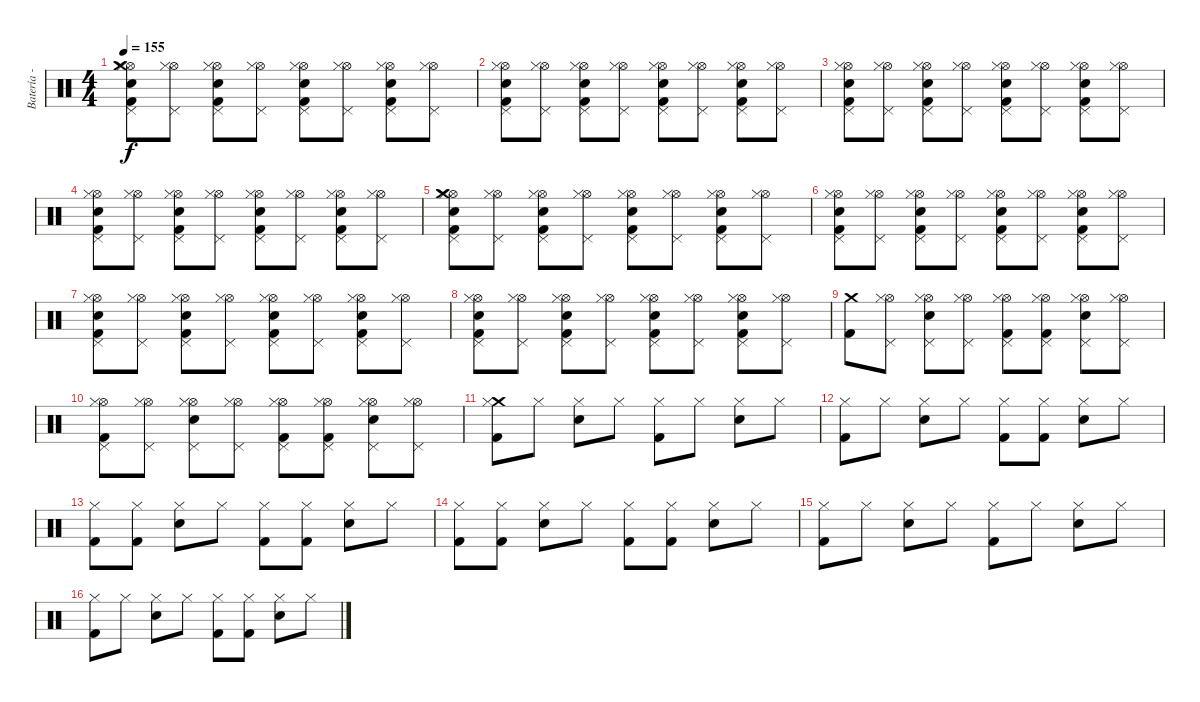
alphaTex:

\track ("Batería - Edu" "Batería - ") {instrument percussion}
\staff {score}
\articulation defaults
\ts (4 4)
\tempo 155
\clef neutral
\ks c
("Hi-Hat (open)" "Pedal Hi-Hat (hit)" "Hi-Hat (closed)" "Kick (hit) 2" "Electric Snare (hit)" "Crash medium (hit)").8{dy f} ("Hi-Hat (open)" "Pedal Hi-Hat (hit)" "Hi-Hat (closed)").8 ("Hi-Hat (open)" "Pedal Hi-Hat (hit)" "Hi-Hat (closed)" "Kick (hit) 2" "Electric Snare (hit)").8 ("Hi-Hat (open)" "Pedal Hi-Hat (hit)" "Hi-Hat (closed)").8 ("Hi-Hat (open)" "Pedal Hi-Hat (hit)" "Hi-Hat (closed)" "Kick (hit) 2" "Electric Snare (hit)").8 ("Hi-Hat (open)" "Pedal Hi-Hat (hit)" "Hi-Hat (closed)").8 ("Hi-Hat (open)" "Pedal Hi-Hat (hit)" "Hi-Hat (closed)" "Kick (hit) 2" "Electric Snare (hit)").8 ("Hi-Hat (open)" "Pedal Hi-Hat (hit)" "Hi-Hat (closed)").8 |
("Hi-Hat (open)" "Pedal Hi-Hat (hit)" "Hi-Hat (closed)" "Kick (hit) 2" "Electric Snare (hit)").8 ("Hi-Hat (open)" "Pedal Hi-Hat (hit)" "Hi-Hat (closed)").8 ("Hi-Hat (open)" "Pedal Hi-Hat (hit)" "Hi-Hat (closed)" "Kick (hit) 2" "Electric Snare (hit)").8 ("Hi-Hat (open)" "Pedal Hi-Hat (hit)" "Hi-Hat (closed)").8 ("Hi-Hat (open)" "Pedal Hi-Hat (hit)" "Hi-Hat (closed)" "Kick (hit) 2" "Electric Snare (hit)").8 ("Hi-Hat (open)" "Pedal Hi-Hat (hit)" "Hi-Hat (closed)").8 ("Hi-Hat (open)" "Pedal Hi-Hat (hit)" "Hi-Hat (closed)" "Kick (hit) 2" "Electric Snare (hit)").8 ("Hi-Hat (open)" "Pedal Hi-Hat (hit)" "Hi-Hat (closed)").8 |
("Hi-Hat (open)" "Pedal Hi-Hat (hit)" "Hi-Hat (closed)" "Kick (hit) 2" "Electric Snare (hit)").8 ("Hi-Hat (open)" "Pedal Hi-Hat (hit)" "Hi-Hat (closed)").8 ("Hi-Hat (open)" "Pedal Hi-Hat (hit)" "Hi-Hat (closed)" "Kick (hit) 2" "Electric Snare (hit)").8 ("Hi-Hat (open)" "Pedal Hi-Hat (hit)" "Hi-Hat (closed)").8 ("Hi-Hat (open)" "Pedal Hi-Hat (hit)" "Hi-Hat (closed)" "Kick (hit) 2" "Electric Snare (hit)").8 ("Hi-Hat (open)" "Pedal Hi-Hat (hit)" "Hi-Hat (closed)").8 ("Hi-Hat (open)" "Pedal Hi-Hat (hit)" "Hi-Hat (closed)" "Kick (hit) 2" "Electric Snare (hit)").8 ("Hi-Hat (open)" "Pedal Hi-Hat (hit)" "Hi-Hat (closed)").8 |
("Hi-Hat (open)" "Pedal Hi-Hat (hit)" "Hi-Hat (closed)" "Kick (hit) 2" "Electric Snare (hit)").8 ("Hi-Hat (open)" "Pedal Hi-Hat (hit)" "Hi-Hat (closed)").8 ("Hi-Hat (open)" "Pedal Hi-Hat (hit)" "Hi-Hat (closed)" "Kick (hit) 2" "Electric Snare (hit)").8 ("Hi-Hat (open)" "Pedal Hi-Hat (hit)" "Hi-Hat (closed)").8 ("Hi-Hat (open)" "Pedal Hi-Hat (hit)" "Hi-Hat (closed)" "Kick (hit) 2" "Electric Snare (hit)").8 ("Hi-Hat (open)" "Pedal Hi-Hat (hit)" "Hi-Hat (closed)").8 ("Hi-Hat (open)" "Pedal Hi-Hat (hit)" "Hi-Hat (closed)" "Kick (hit) 2" "Electric Snare (hit)").8 ("Hi-Hat (open)" "Pedal Hi-Hat (hit)" "Hi-Hat (closed)").8 |
("Hi-Hat (open)" "Pedal Hi-Hat (hit)" "Hi-Hat (closed)" "Kick (hit) 2" "Electric Snare (hit)" "Crash medium (hit)").8 ("Hi-Hat (open)" "Pedal Hi-Hat (hit)" "Hi-Hat (closed)").8 ("Hi-Hat (open)" "Pedal Hi-Hat (hit)" "Hi-Hat (closed)" "Kick (hit) 2" "Electric Snare (hit)").8 ("Hi-Hat (open)" "Pedal Hi-Hat (hit)" "Hi-Hat (closed)").8 ("Hi-Hat (open)" "Pedal Hi-Hat (hit)" "Hi-Hat (closed)" "Kick (hit) 2" "Electric Snare (hit)").8 ("Hi-Hat (open)" "Pedal Hi-Hat (hit)" "Hi-Hat (closed)").8 ("Hi-Hat (open)" "Pedal Hi-Hat (hit)" "Hi-Hat (closed)" "Kick (hit) 2" "Electric Snare (hit)").8 ("Hi-Hat (open)" "Pedal Hi-Hat (hit)" "Hi-Hat (closed)").8 |
("Hi-Hat (open)" "Pedal Hi-Hat (hit)" "Hi-Hat (closed)" "Kick (hit) 2" "Electric Snare (hit)").8 ("Hi-Hat (open)" "Pedal Hi-Hat (hit)" "Hi-Hat (closed)").8 ("Hi-Hat (open)" "Pedal Hi-Hat (hit)" "Hi-Hat (closed)" "Kick (hit) 2" "Electric Snare (hit)").8 ("Hi-Hat (open)" "Pedal Hi-Hat (hit)" "Hi-Hat (closed)").8 ("Hi-Hat (open)" "Pedal Hi-Hat (hit)" "Hi-Hat (closed)" "Kick (hit) 2" "Electric Snare (hit)").8 ("Hi-Hat (open)" "Pedal Hi-Hat (hit)" "Hi-Hat (closed)").8 ("Hi-Hat (open)" "Pedal Hi-Hat (hit)" "Hi-Hat (closed)" "Kick (hit) 2" "Electric Snare (hit)").8 ("Hi-Hat (open)" "Pedal Hi-Hat (hit)" "Hi-Hat (closed)").8 |
("Hi-Hat (open)" "Pedal Hi-Hat (hit)" "Hi-Hat (closed)" "Kick (hit) 2" "Electric Snare (hit)").8 ("Hi-Hat (open)" "Pedal Hi-Hat (hit)" "Hi-Hat (closed)").8 ("Hi-Hat (open)" "Pedal Hi-Hat (hit)" "Hi-Hat (closed)" "Kick (hit) 2" "Electric Snare (hit)").8 ("Hi-Hat (open)" "Pedal Hi-Hat (hit)" "Hi-Hat (closed)").8 ("Hi-Hat (open)" "Pedal Hi-Hat (hit)" "Hi-Hat (closed)" "Kick (hit) 2" "Electric Snare (hit)").8 ("Hi-Hat (open)" "Pedal Hi-Hat (hit)" "Hi-Hat (closed)").8 ("Hi-Hat (open)" "Pedal Hi-Hat (hit)" "Hi-Hat (closed)" "Kick (hit) 2" "Electric Snare (hit)").8 ("Hi-Hat (open)" "Pedal Hi-Hat (hit)" "Hi-Hat (closed)").8 |
("Hi-Hat (open)" "Pedal Hi-Hat (hit)" "Hi-Hat (closed)" "Kick (hit) 2" "Electric Snare (hit)").8 ("Hi-Hat (open)" "Pedal Hi-Hat (hit)" "Hi-Hat (closed)").8 ("Hi-Hat (open)" "Pedal Hi-Hat (hit)" "Hi-Hat (closed)" "Kick (hit) 2" "Electric Snare (hit)").8 ("Hi-Hat (open)" "Pedal Hi-Hat (hit)" "Hi-Hat (closed)").8 ("Hi-Hat (open)" "Pedal Hi-Hat (hit)" "Hi-Hat (closed)" "Kick (hit) 2" "Electric Snare (hit)").8 ("Hi-Hat (open)" "Pedal Hi-Hat (hit)" "Hi-Hat (closed)").8 ("Hi-Hat (open)" "Pedal Hi-Hat (hit)" "Hi-Hat (closed)" "Kick (hit) 2" "Electric Snare (hit)").8 ("Hi-Hat (open)" "Pedal Hi-Hat (hit)" "Hi-Hat (closed)").8 |
("Crash medium (hit)" "Kick (hit) 2").8 ("Pedal Hi-Hat (hit)" "Hi-Hat (open)" "Hi-Hat (closed)").8 ("Pedal Hi-Hat (hit)" "Hi-Hat (open)" "Hi-Hat (closed)" "Electric Snare (hit)").8 ("Pedal Hi-Hat (hit)" "Hi-Hat (open)" "Hi-Hat (closed)").8 ("Pedal Hi-Hat (hit)" "Hi-Hat (open)" "Hi-Hat (closed)" "Kick (hit) 2").8 ("Pedal Hi-Hat (hit)" "Hi-Hat (open)" "Hi-Hat (closed)" "Kick (hit) 2").8 ("Pedal Hi-Hat (hit)" "Hi-Hat (open)" "Hi-Hat (closed)" "Electric Snare (hit)").8 ("Pedal Hi-Hat (hit)" "Hi-Hat (open)" "Hi-Hat (closed)").8 |
("Pedal Hi-Hat (hit)" "Hi-Hat (open)" "Hi-Hat (closed)" "Kick (hit) 2").8 ("Pedal Hi-Hat (hit)" "Hi-Hat (open)" "Hi-Hat (closed)").8 ("Pedal Hi-Hat (hit)" "Hi-Hat (open)" "Hi-Hat (closed)" "Electric Snare (hit)").8 ("Pedal Hi-Hat (hit)" "Hi-Hat (open)" "Hi-Hat (closed)").8 ("Pedal Hi-Hat (hit)" "Hi-Hat (open)" "Hi-Hat (closed)" "Kick (hit) 2").8 ("Pedal Hi-Hat (hit)" "Hi-Hat (open)" "Hi-Hat (closed)" "Kick (hit) 2").8 ("Pedal Hi-Hat (hit)" "Hi-Hat (open)" "Hi-Hat (closed)" "Electric Snare (hit)").8 ("Pedal Hi-Hat (hit)" "Hi-Hat (open)" "Hi-Hat (closed)").8 |
("Crash medium (hit)" "Kick (hit) 2" "Hi-Hat (closed)").8 "Hi-Hat (closed)".8 ("Electric Snare (hit)" "Hi-Hat (closed)").8 "Hi-Hat (closed)".8 ("Kick (hit) 2" "Hi-Hat (closed)").8 "Hi-Hat (closed)".8 ("Electric Snare (hit)" "Hi-Hat (closed)").8 "Hi-Hat (closed)".8 |
("Kick (hit) 2" "Hi-Hat (closed)").8 "Hi-Hat (closed)".8 ("Electric Snare (hit)" "Hi-Hat (closed)").8 "Hi-Hat (closed)".8 ("Kick (hit) 2" "Hi-Hat (closed)").8 ("Kick (hit) 2" "Hi-Hat (closed)").8 ("Electric Snare (hit)" "Hi-Hat (closed)").8 "Hi-Hat (closed)".8 |
("Kick (hit) 2" "Hi-Hat (closed)").8 ("Kick (hit) 2" "Hi-Hat (closed)").8 ("Electric Snare (hit)" "Hi-Hat (closed)").8 "Hi-Hat (closed)".8 ("Kick (hit) 2" "Hi-Hat (closed)").8 ("Kick (hit) 2" "Hi-Hat (closed)").8 ("Electric Snare (hit)" "Hi-Hat (closed)").8 "Hi-Hat (closed)".8 |
("Kick (hit) 2" "Hi-Hat (closed)").8 ("Kick (hit) 2" "Hi-Hat (closed)").8 ("Electric Snare (hit)" "Hi-Hat (closed)").8 "Hi-Hat (closed)".8 ("Kick (hit) 2" "Hi-Hat (closed)").8 ("Kick (hit) 2" "Hi-Hat (closed)").8 ("Electric Snare (hit)" "Hi-Hat (closed)").8 "Hi-Hat (closed)".8 |
("Kick (hit) 2" "Hi-Hat (closed)").8 "Hi-Hat (closed)".8 ("Electric Snare (hit)" "Hi-Hat (closed)").8 "Hi-Hat (closed)".8 ("Kick (hit) 2" "Hi-Hat (closed)").8 "Hi-Hat (closed)".8 ("Electric Snare (hit)" "Hi-Hat (closed)").8 "Hi-Hat (closed)".8 |
("Kick (hit) 2" "Hi-Hat (closed)").8 "Hi-Hat (closed)".8 ("Electric Snare (hit)" "Hi-Hat (closed)").8 "Hi-Hat (closed)".8 ("Kick (hit) 2" "Hi-Hat (closed)").8 ("Kick (hit) 2" "Hi-Hat (closed)").8 ("Electric Snare (hit)" "Hi-Hat (closed)").8 "Hi-Hat (closed)".8
